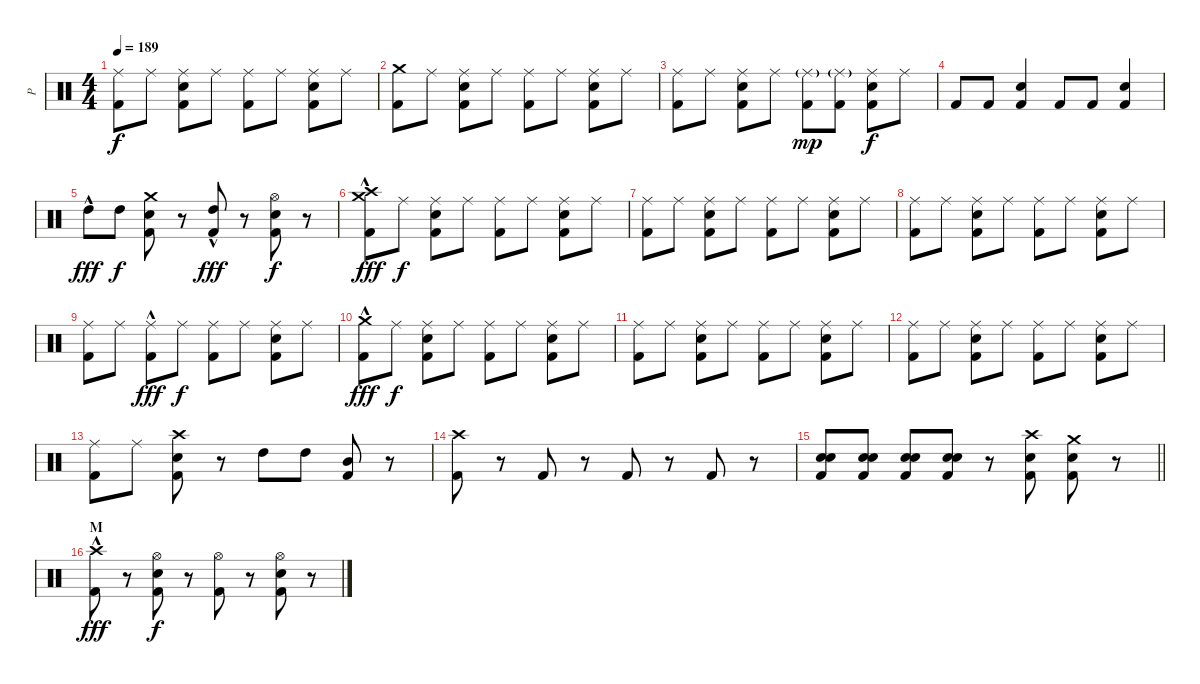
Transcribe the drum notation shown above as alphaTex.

\track ("P" "P") {instrument percussion}
\staff {score}
\articulation defaults
\ts (4 4)
\tempo 189
\clef neutral
\ks c
("Ride (middle)" "Kick (hit) 2").8{dy f} "Ride (middle)".8 ("Ride (middle)" "Electric Snare (hit)" "Kick (hit) 2").8 "Ride (middle)".8 ("Ride (middle)" "Kick (hit) 2").8 "Ride (middle)".8 ("Ride (middle)" "Electric Snare (hit)" "Kick (hit) 2").8 "Ride (middle)".8 |
("Crash medium (hit)" "Kick (hit) 2").8 "Ride (middle)".8 ("Ride (middle)" "Electric Snare (hit)" "Kick (hit) 2").8 "Ride (middle)".8 ("Ride (middle)" "Kick (hit) 2").8 "Ride (middle)".8 ("Ride (middle)" "Electric Snare (hit)" "Kick (hit) 2").8 "Ride (middle)".8 |
("Ride (middle)" "Kick (hit) 2").8 "Ride (middle)".8 ("Ride (middle)" "Electric Snare (hit)" "Kick (hit) 2").8 "Ride (middle)".8 ("Ride (middle)"{g} "Kick (hit) 2").8{dy mp} ("Ride (middle)"{g} "Kick (hit) 2").8 ("Ride (middle)" "Electric Snare (hit)" "Kick (hit) 2").8{dy f} "Ride (middle)".8 |
"Kick (hit) 2".8 "Kick (hit) 2".8 ("Electric Snare (hit)" "Kick (hit) 2").4 "Kick (hit) 2".8 "Kick (hit) 2".8 ("Electric Snare (hit)" "Kick (hit) 2").4 |
"High Tom (hit)"{hac}.8{dy fff} "High Tom (hit)".8{dy f} ("Crash medium (hit)" "Electric Snare (hit)" "Kick (hit) 2").8 r.8 ("High Tom (hit)"{hac} "Kick (hit) 2").8{dy fff} r.8 ("Hi-Hat (open)" "Electric Snare (hit)" "Kick (hit) 2").8{dy f} r.8 |
("Crash medium (hit)"{hac} "Crash high (hit)" "Kick (hit) 2").8{dy fff} "Ride (middle)".8{dy f} ("Ride (middle)" "Electric Snare (hit)" "Kick (hit) 2").8 "Ride (middle)".8 ("Ride (middle)" "Kick (hit) 2").8 "Ride (middle)".8 ("Ride (middle)" "Electric Snare (hit)" "Kick (hit) 2").8 "Ride (middle)".8 |
("Ride (middle)" "Kick (hit) 2").8 "Ride (middle)".8 ("Ride (middle)" "Electric Snare (hit)" "Kick (hit) 2").8 "Ride (middle)".8 ("Ride (middle)" "Kick (hit) 2").8 "Ride (middle)".8 ("Ride (middle)" "Electric Snare (hit)" "Kick (hit) 2").8 "Ride (middle)".8 |
("Ride (middle)" "Kick (hit) 2").8 "Ride (middle)".8 ("Ride (middle)" "Electric Snare (hit)" "Kick (hit) 2").8 "Ride (middle)".8 ("Ride (middle)" "Kick (hit) 2").8 "Ride (middle)".8 ("Ride (middle)" "Electric Snare (hit)" "Kick (hit) 2").8 "Ride (middle)".8 |
("Ride (middle)" "Kick (hit) 2").8 "Ride (middle)".8 ("Ride (middle)"{hac} "Kick (hit) 2").8{dy fff} "Ride (middle)".8{dy f} ("Ride (middle)" "Kick (hit) 2").8 "Ride (middle)".8 ("Ride (middle)" "Electric Snare (hit)" "Kick (hit) 2").8 "Ride (middle)".8 |
("Crash medium (hit)"{hac} "Kick (hit) 2").8{dy fff} "Ride (middle)".8{dy f} ("Ride (middle)" "Electric Snare (hit)" "Kick (hit) 2").8 "Ride (middle)".8 ("Ride (middle)" "Kick (hit) 2").8 "Ride (middle)".8 ("Ride (middle)" "Electric Snare (hit)" "Kick (hit) 2").8 "Ride (middle)".8 |
("Ride (middle)" "Kick (hit) 2").8 "Ride (middle)".8 ("Ride (middle)" "Electric Snare (hit)" "Kick (hit) 2").8 "Ride (middle)".8 ("Ride (middle)" "Kick (hit) 2").8 "Ride (middle)".8 ("Ride (middle)" "Electric Snare (hit)" "Kick (hit) 2").8 "Ride (middle)".8 |
("Ride (middle)" "Kick (hit) 2").8 "Ride (middle)".8 ("Ride (middle)" "Electric Snare (hit)" "Kick (hit) 2").8 "Ride (middle)".8 ("Ride (middle)" "Kick (hit) 2").8 "Ride (middle)".8 ("Ride (middle)" "Electric Snare (hit)" "Kick (hit) 2").8 "Ride (middle)".8 |
("Ride (middle)" "Kick (hit) 2").8 "Ride (middle)".8 ("Crash high (hit)" "Electric Snare (hit)" "Kick (hit) 2").8 r.8 "High Tom (hit)".8 "High Tom (hit)".8 ("Mid Tom (hit)" "Kick (hit) 2").8 r.8 |
("Crash high (hit)" "Kick (hit) 2").8 r.8 "Kick (hit) 2".8 r.8 "Kick (hit) 2".8 r.8 "Kick (hit) 2".8 r.8 |
\barLineRight lightlight
("Electric Snare (hit)" "Electric Snare (hit)" "Kick (hit) 2").8 ("Electric Snare (hit)" "Electric Snare (hit)" "Kick (hit) 2").8 ("Electric Snare (hit)" "Electric Snare (hit)" "Kick (hit) 2").8 ("Electric Snare (hit)" "Electric Snare (hit)" "Kick (hit) 2").8 r.8 ("Crash high (hit)" "Electric Snare (hit)" "Kick (hit) 2").8 ("Crash medium (hit)" "Electric Snare (hit)" "Kick (hit) 2").8 r.8 |
\section ("" "M")
("Crash high (hit)"{hac} "Kick (hit) 2").8{dy fff} r.8 ("Hi-Hat (open)" "Electric Snare (hit)" "Kick (hit) 2").8{dy f} r.8 ("Hi-Hat (open)" "Kick (hit) 2").8 r.8 ("Hi-Hat (open)" "Electric Snare (hit)" "Kick (hit) 2").8 r.8
